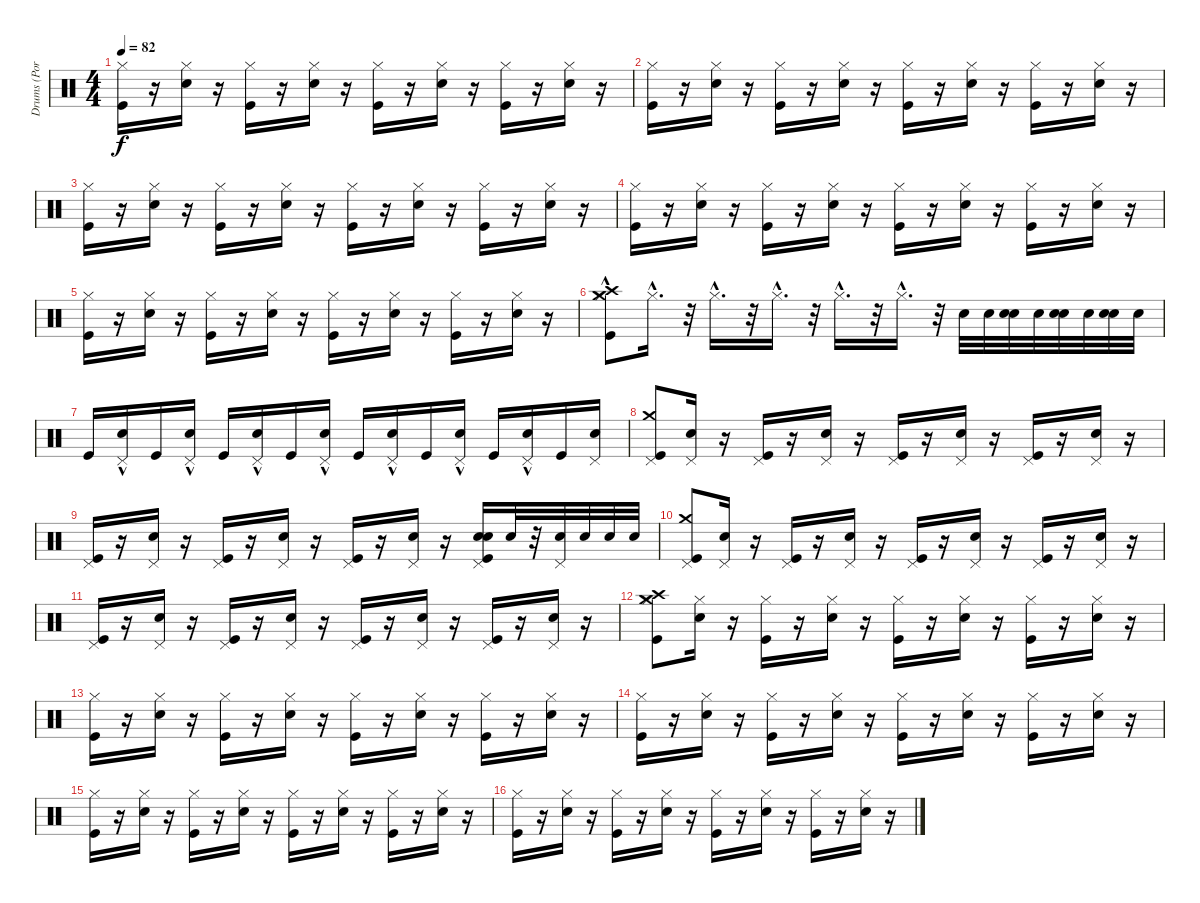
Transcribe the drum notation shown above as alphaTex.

\track ("Drums (Poruchik)" "Drums (Por") {instrument percussion}
\staff {score}
\articulation defaults
\ts (4 4)
\tempo 82
\clef neutral
\ks c
("Hi-Hat (closed)" "Kick (hit)").16{dy f} r.16 ("Hi-Hat (closed)" "Snare (hit) 2").16 r.16 ("Kick (hit)" "Hi-Hat (closed)").16 r.16 ("Hi-Hat (closed)" "Snare (hit) 2").16 r.16 ("Hi-Hat (closed)" "Kick (hit)").16 r.16 ("Snare (hit) 2" "Hi-Hat (closed)").16 r.16 ("Hi-Hat (closed)" "Kick (hit)").16 r.16 ("Hi-Hat (closed)" "Snare (hit) 2").16 r.16 |
("Kick (hit)" "Hi-Hat (closed)").16 r.16 ("Hi-Hat (closed)" "Snare (hit) 2").16 r.16 ("Kick (hit)" "Hi-Hat (closed)").16 r.16 ("Hi-Hat (closed)" "Snare (hit) 2").16 r.16 ("Hi-Hat (closed)" "Kick (hit)").16 r.16 ("Snare (hit) 2" "Hi-Hat (closed)").16 r.16 ("Hi-Hat (closed)" "Kick (hit)").16 r.16 ("Hi-Hat (closed)" "Snare (hit) 2").16 r.16 |
("Kick (hit)" "Hi-Hat (closed)").16 r.16 ("Hi-Hat (closed)" "Snare (hit) 2").16 r.16 ("Kick (hit)" "Hi-Hat (closed)").16 r.16 ("Snare (hit) 2" "Hi-Hat (closed)").16 r.16 ("Kick (hit)" "Hi-Hat (closed)").16 r.16 ("Hi-Hat (closed)" "Snare (hit) 2").16 r.16 ("Hi-Hat (closed)" "Kick (hit)").16 r.16 ("Snare (hit) 2" "Hi-Hat (closed)").16 r.16 |
("Hi-Hat (closed)" "Kick (hit)").16 r.16 ("Hi-Hat (closed)" "Snare (hit) 2").16 r.16 ("Kick (hit)" "Hi-Hat (closed)").16 r.16 ("Hi-Hat (closed)" "Snare (hit) 2").16 r.16 ("Hi-Hat (closed)" "Kick (hit)").16 r.16 ("Snare (hit) 2" "Hi-Hat (closed)").16 r.16 ("Hi-Hat (closed)" "Kick (hit)").16 r.16 ("Hi-Hat (closed)" "Snare (hit) 2").16 r.16 |
("Hi-Hat (closed)" "Kick (hit)").16 r.16 ("Snare (hit) 2" "Hi-Hat (closed)").16 r.16 ("Hi-Hat (closed)" "Kick (hit)").16 r.16 ("Hi-Hat (closed)" "Snare (hit) 2").16 r.16 ("Kick (hit)" "Hi-Hat (closed)").16 r.16 ("Hi-Hat (closed)" "Snare (hit) 2").16 r.16 ("Kick (hit)" "Hi-Hat (closed)").16 r.16 ("Snare (hit) 2" "Hi-Hat (closed)").16 r.16 |
("Hi-Hat (closed)"{hac} "Kick (hit)" "Crash medium (hit)" "Crash high (hit)").8 "Hi-Hat (closed)"{hac}.16{d} r.32 "Hi-Hat (closed)"{hac}.16{d} r.32 "Hi-Hat (closed)"{hac}.16{d} r.32 "Hi-Hat (closed)"{hac}.16{d} r.32 "Hi-Hat (closed)"{hac}.16{d} r.32 "Snare (hit) 2".32 "Snare (hit) 2".32 ("Snare (hit) 2" "Snare (hit) 2").32 "Snare (hit) 2".32 ("Snare (hit) 2" "Snare (hit) 2").32 "Snare (hit) 2".32 ("Snare (hit) 2" "Snare (hit) 2").32 "Snare (hit) 2".32 |
"Kick (hit)".16 ("Snare (hit) 2" "Pedal Hi-Hat (hit)"{hac}).16 "Kick (hit)".16 ("Pedal Hi-Hat (hit)"{hac} "Snare (hit) 2").16 "Kick (hit)".16 ("Snare (hit) 2" "Pedal Hi-Hat (hit)"{hac}).16 "Kick (hit)".16 ("Pedal Hi-Hat (hit)"{hac} "Snare (hit) 2").16 "Kick (hit)".16 ("Snare (hit) 2" "Pedal Hi-Hat (hit)"{hac}).16 "Kick (hit)".16 ("Pedal Hi-Hat (hit)"{hac} "Snare (hit) 2").16 "Kick (hit)".16 ("Snare (hit) 2" "Pedal Hi-Hat (hit)"{hac}).16 "Kick (hit)".16 ("Pedal Hi-Hat (hit)" "Snare (hit) 2").16 |
("Pedal Hi-Hat (hit)" "Kick (hit)" "Crash medium (hit)").8 ("Snare (hit) 2" "Pedal Hi-Hat (hit)").16 r.16 ("Pedal Hi-Hat (hit)" "Kick (hit)").16 r.16 ("Pedal Hi-Hat (hit)" "Snare (hit) 2").16 r.16 ("Kick (hit)" "Pedal Hi-Hat (hit)").16 r.16 ("Snare (hit) 2" "Pedal Hi-Hat (hit)").16 r.16 ("Pedal Hi-Hat (hit)" "Kick (hit)").16 r.16 ("Pedal Hi-Hat (hit)" "Snare (hit) 2").16 r.16 |
("Pedal Hi-Hat (hit)" "Kick (hit)").16 r.16 ("Pedal Hi-Hat (hit)" "Snare (hit) 2").16 r.16 ("Pedal Hi-Hat (hit)" "Kick (hit)").16 r.16 ("Snare (hit) 2" "Pedal Hi-Hat (hit)").16 r.16 ("Pedal Hi-Hat (hit)" "Kick (hit)").16 r.16 ("Snare (hit) 2" "Pedal Hi-Hat (hit)").16 r.16 ("Kick (hit)" "Snare (hit) 2" "Pedal Hi-Hat (hit)" "Snare (hit) 2").16 "Snare (hit) 2".32 r.32 ("Snare (hit) 2" "Pedal Hi-Hat (hit)").32 "Snare (hit) 2".32 "Snare (hit) 2".32 "Snare (hit) 2".32 |
("Pedal Hi-Hat (hit)" "Kick (hit)" "Crash medium (hit)").8 ("Pedal Hi-Hat (hit)" "Snare (hit) 2").16 r.16 ("Pedal Hi-Hat (hit)" "Kick (hit)").16 r.16 ("Pedal Hi-Hat (hit)" "Snare (hit) 2").16 r.16 ("Kick (hit)" "Pedal Hi-Hat (hit)").16 r.16 ("Pedal Hi-Hat (hit)" "Snare (hit) 2").16 r.16 ("Pedal Hi-Hat (hit)" "Kick (hit)").16 r.16 ("Snare (hit) 2" "Pedal Hi-Hat (hit)").16 r.16 |
("Pedal Hi-Hat (hit)" "Kick (hit)").16 r.16 ("Pedal Hi-Hat (hit)" "Snare (hit) 2").16 r.16 ("Pedal Hi-Hat (hit)" "Kick (hit)").16 r.16 ("Snare (hit) 2" "Pedal Hi-Hat (hit)").16 r.16 ("Pedal Hi-Hat (hit)" "Kick (hit)").16 r.16 ("Snare (hit) 2" "Pedal Hi-Hat (hit)").16 r.16 ("Kick (hit)" "Pedal Hi-Hat (hit)").16 r.16 ("Snare (hit) 2" "Pedal Hi-Hat (hit)").16 r.16 |
("Hi-Hat (closed)" "Kick (hit)" "Crash high (hit)" "Crash medium (hit)").8 ("Snare (hit) 2" "Hi-Hat (closed)").16 r.16 ("Hi-Hat (closed)" "Kick (hit)").16 r.16 ("Hi-Hat (closed)" "Snare (hit) 2").16 r.16 ("Hi-Hat (closed)" "Kick (hit)").16 r.16 ("Snare (hit) 2" "Hi-Hat (closed)").16 r.16 ("Hi-Hat (closed)" "Kick (hit)").16 r.16 ("Hi-Hat (closed)" "Snare (hit) 2").16 r.16 |
("Kick (hit)" "Hi-Hat (closed)").16 r.16 ("Hi-Hat (closed)" "Snare (hit) 2").16 r.16 ("Kick (hit)" "Hi-Hat (closed)").16 r.16 ("Hi-Hat (closed)" "Snare (hit) 2").16 r.16 ("Hi-Hat (closed)" "Kick (hit)").16 r.16 ("Hi-Hat (closed)" "Snare (hit) 2").16 r.16 ("Kick (hit)" "Hi-Hat (closed)").16 r.16 ("Snare (hit) 2" "Hi-Hat (closed)").16 r.16 |
("Hi-Hat (closed)" "Kick (hit)").16 r.16 ("Snare (hit) 2" "Hi-Hat (closed)").16 r.16 ("Hi-Hat (closed)" "Kick (hit)").16 r.16 ("Hi-Hat (closed)" "Snare (hit) 2").16 r.16 ("Kick (hit)" "Hi-Hat (closed)").16 r.16 ("Snare (hit) 2" "Hi-Hat (closed)").16 r.16 ("Kick (hit)" "Hi-Hat (closed)").16 r.16 ("Hi-Hat (closed)" "Snare (hit) 2").16 r.16 |
("Kick (hit)" "Hi-Hat (closed)").16 r.16 ("Hi-Hat (closed)" "Snare (hit) 2").16 r.16 ("Hi-Hat (closed)" "Kick (hit)").16 r.16 ("Snare (hit) 2" "Hi-Hat (closed)").16 r.16 ("Kick (hit)" "Hi-Hat (closed)").16 r.16 ("Hi-Hat (closed)" "Snare (hit) 2").16 r.16 ("Hi-Hat (closed)" "Kick (hit)").16 r.16 ("Snare (hit) 2" "Hi-Hat (closed)").16 r.16 |
("Kick (hit)" "Hi-Hat (closed)").16 r.16 ("Snare (hit) 2" "Hi-Hat (closed)").16 r.16 ("Hi-Hat (closed)" "Kick (hit)").16 r.16 ("Snare (hit) 2" "Hi-Hat (closed)").16 r.16 ("Hi-Hat (closed)" "Kick (hit)").16 r.16 ("Hi-Hat (closed)" "Snare (hit) 2").16 r.16 ("Kick (hit)" "Hi-Hat (closed)").16 r.16 ("Snare (hit) 2" "Hi-Hat (closed)").16 r.16
